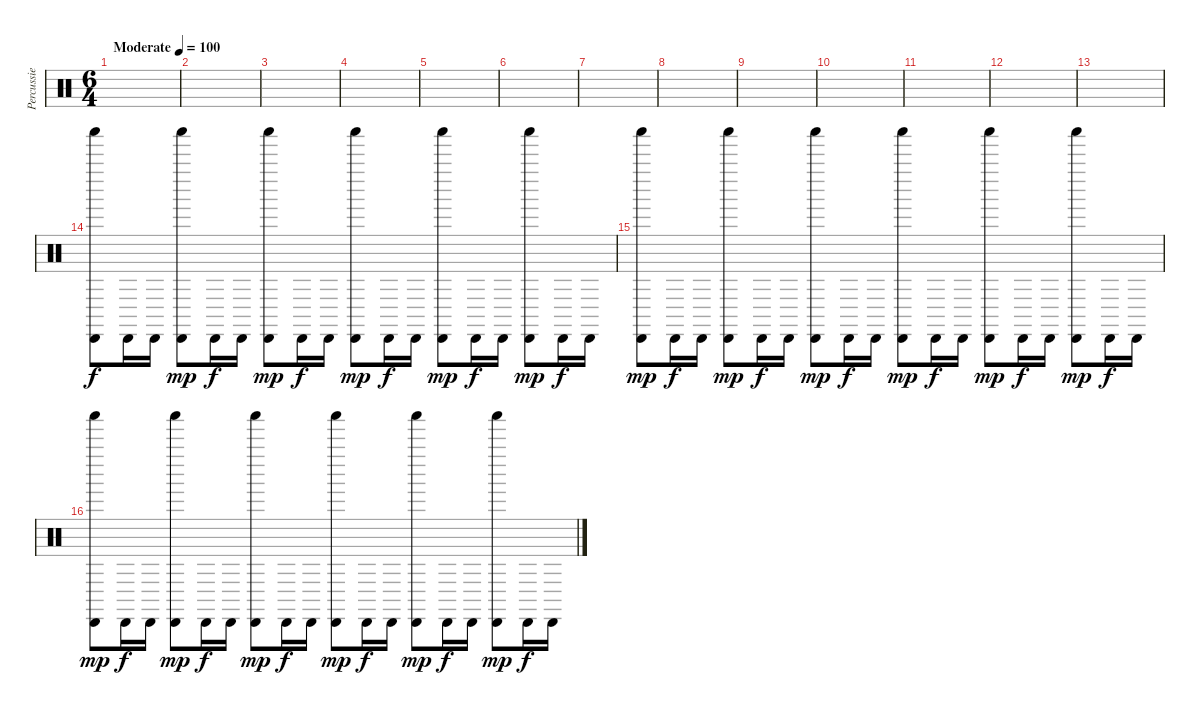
\track ("Percussie" "Percussie") {instrument percussion}
\staff {score}
\articulation defaults
\ts (6 4)
\tempo (100 "Moderate")
\clef neutral
\ks c
|
|
|
|
|
|
|
|
|
|
|
|
|
("Cabasa (hit)" "Shaker (hit)").8 "Cabasa (hit)".16{dy f} "Cabasa (hit)".16 ("Cabasa (hit)" "Shaker (hit)").8{dy mp} "Cabasa (hit)".16{dy f} "Cabasa (hit)".16 ("Cabasa (hit)" "Shaker (hit)").8{dy mp} "Cabasa (hit)".16{dy f} "Cabasa (hit)".16 ("Cabasa (hit)" "Shaker (hit)").8{dy mp} "Cabasa (hit)".16{dy f} "Cabasa (hit)".16 ("Cabasa (hit)" "Shaker (hit)").8{dy mp} "Cabasa (hit)".16{dy f} "Cabasa (hit)".16 ("Cabasa (hit)" "Shaker (hit)").8{dy mp} "Cabasa (hit)".16{dy f} "Cabasa (hit)".16 |
("Cabasa (hit)" "Shaker (hit)").8{dy mp} "Cabasa (hit)".16{dy f} "Cabasa (hit)".16 ("Cabasa (hit)" "Shaker (hit)").8{dy mp} "Cabasa (hit)".16{dy f} "Cabasa (hit)".16 ("Cabasa (hit)" "Shaker (hit)").8{dy mp} "Cabasa (hit)".16{dy f} "Cabasa (hit)".16 ("Cabasa (hit)" "Shaker (hit)").8{dy mp} "Cabasa (hit)".16{dy f} "Cabasa (hit)".16 ("Cabasa (hit)" "Shaker (hit)").8{dy mp} "Cabasa (hit)".16{dy f} "Cabasa (hit)".16 ("Cabasa (hit)" "Shaker (hit)").8{dy mp} "Cabasa (hit)".16{dy f} "Cabasa (hit)".16 |
("Cabasa (hit)" "Shaker (hit)").8{dy mp} "Cabasa (hit)".16{dy f} "Cabasa (hit)".16 ("Cabasa (hit)" "Shaker (hit)").8{dy mp} "Cabasa (hit)".16{dy f} "Cabasa (hit)".16 ("Cabasa (hit)" "Shaker (hit)").8{dy mp} "Cabasa (hit)".16{dy f} "Cabasa (hit)".16 ("Cabasa (hit)" "Shaker (hit)").8{dy mp} "Cabasa (hit)".16{dy f} "Cabasa (hit)".16 ("Cabasa (hit)" "Shaker (hit)").8{dy mp} "Cabasa (hit)".16{dy f} "Cabasa (hit)".16 ("Cabasa (hit)" "Shaker (hit)").8{dy mp} "Cabasa (hit)".16{dy f} "Cabasa (hit)".16
